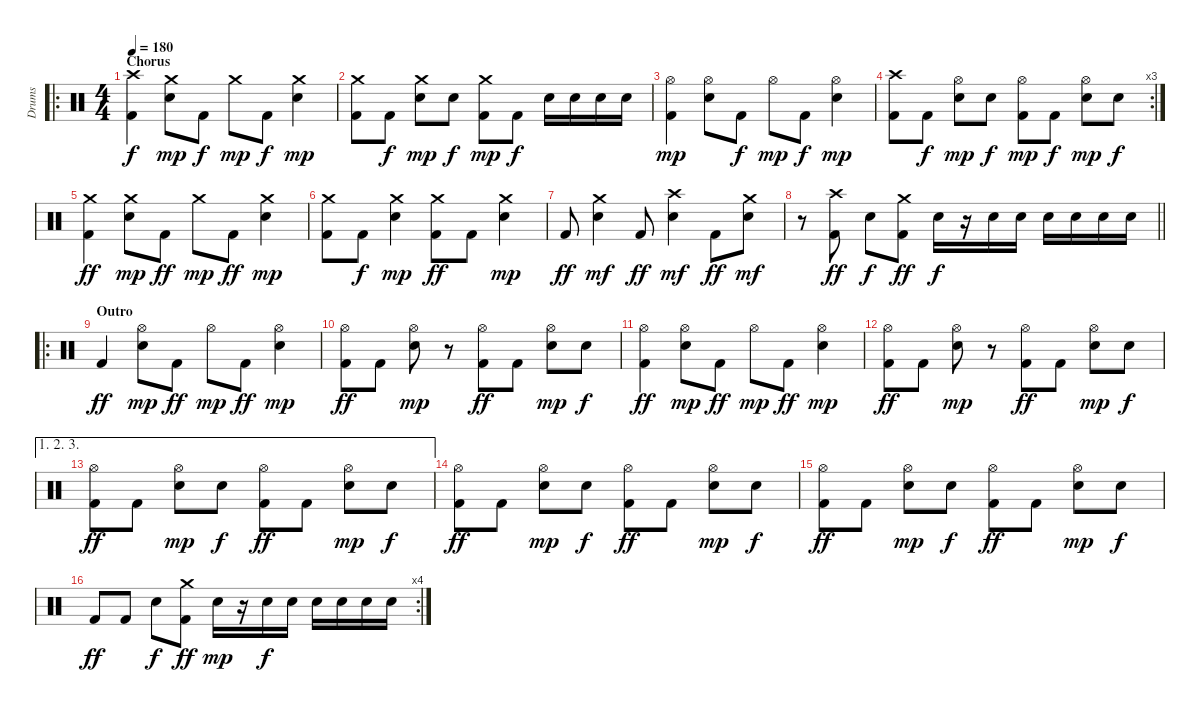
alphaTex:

\track ("Drums" "Drums") {instrument percussion}
\staff {score}
\articulation defaults
\ro
\ts (4 4)
\section ("" "Chorus")
\tempo 180
\clef neutral
\ks c
("Crash high (hit)" "Kick (hit) 2").4{dy f} ("Crash medium (hit)" "Snare (hit) 2").8{dy mp} "Kick (hit) 2".8{dy f} "Crash medium (hit)".8{dy mp} "Kick (hit) 2".8{dy f} ("Crash medium (hit)" "Snare (hit) 2").4{dy mp} |
("Crash medium (hit)" "Kick (hit) 2").8 "Kick (hit) 2".8{dy f} ("Crash medium (hit)" "Snare (hit) 2").8{dy mp} "Snare (hit) 2".8{dy f} ("Crash medium (hit)" "Kick (hit) 2").8{dy mp} "Kick (hit) 2".8{dy f} "Snare (hit) 2".16 "Snare (hit) 2".16 "Snare (hit) 2".16 "Snare (hit) 2".16 |
("Hi-Hat (open)" "Kick (hit) 2").4{dy mp} ("Hi-Hat (open)" "Snare (hit) 2").8 "Kick (hit) 2".8{dy f} "Hi-Hat (open)".8{dy mp} "Kick (hit) 2".8{dy f} ("Hi-Hat (open)" "Snare (hit) 2").4{dy mp} |
\rc 3
("Crash high (hit)" "Kick (hit) 2").8 "Kick (hit) 2".8{dy f} ("Hi-Hat (open)" "Snare (hit) 2").8{dy mp} "Snare (hit) 2".8{dy f} ("Hi-Hat (open)" "Kick (hit) 2").8{dy mp} "Kick (hit) 2".8{dy f} ("Hi-Hat (open)" "Snare (hit) 2").8{dy mp} "Snare (hit) 2".8{dy f} |
("Crash medium (hit)" "Kick (hit) 2").4{dy ff} ("Crash medium (hit)" "Snare (hit) 2").8{dy mp} "Kick (hit) 2".8{dy ff} "Crash medium (hit)".8{dy mp} "Kick (hit) 2".8{dy ff} ("Crash medium (hit)" "Snare (hit) 2").4{dy mp} |
("Crash medium (hit)" "Kick (hit) 2").8 "Kick (hit) 2".8{dy f} ("Crash medium (hit)" "Snare (hit) 2").4{dy mp} ("Crash medium (hit)" "Kick (hit) 2").8{dy ff} "Kick (hit) 2".8 ("Crash medium (hit)" "Snare (hit) 2").4{dy mp} |
"Kick (hit) 2".8{dy ff} ("Crash medium (hit)" "Snare (hit) 2").4{dy mf} "Kick (hit) 2".8{dy ff} ("Crash high (hit)" "Snare (hit) 2").4{dy mf} "Kick (hit) 2".8{dy ff} ("Crash medium (hit)" "Snare (hit) 2").8{dy mf} |
\barLineRight lightlight
r.8 ("Crash high (hit)" "Kick (hit) 2").8{dy ff} "Snare (hit) 2".8{dy f} ("Crash medium (hit)" "Kick (hit) 2").8{dy ff} "Snare (hit) 2".16{dy f} r.16 "Snare (hit) 2".16 "Snare (hit) 2".16 "Snare (hit) 2".16 "Snare (hit) 2".16 "Snare (hit) 2".16 "Snare (hit) 2".16 |
\ro
\section ("" "Outro")
"Kick (hit) 2".4{dy ff} ("Hi-Hat (open)" "Snare (hit) 2").8{dy mp} "Kick (hit) 2".8{dy ff} "Hi-Hat (open)".8{dy mp} "Kick (hit) 2".8{dy ff} ("Hi-Hat (open)" "Snare (hit) 2").4{dy mp} |
("Hi-Hat (open)" "Kick (hit) 2").8{dy ff} "Kick (hit) 2".8 ("Hi-Hat (open)" "Snare (hit) 2").8{dy mp} r.8 ("Hi-Hat (open)" "Kick (hit) 2").8{dy ff} "Kick (hit) 2".8 ("Hi-Hat (open)" "Snare (hit) 2").8{dy mp} "Snare (hit) 2".8{dy f} |
("Hi-Hat (open)" "Kick (hit) 2").4{dy ff} ("Hi-Hat (open)" "Snare (hit) 2").8{dy mp} "Kick (hit) 2".8{dy ff} "Hi-Hat (open)".8{dy mp} "Kick (hit) 2".8{dy ff} ("Hi-Hat (open)" "Snare (hit) 2").4{dy mp} |
("Hi-Hat (open)" "Kick (hit) 2").8{dy ff} "Kick (hit) 2".8 ("Hi-Hat (open)" "Snare (hit) 2").8{dy mp} r.8 ("Hi-Hat (open)" "Kick (hit) 2").8{dy ff} "Kick (hit) 2".8 ("Hi-Hat (open)" "Snare (hit) 2").8{dy mp} "Snare (hit) 2".8{dy f} |
\ae (1 2 3)
("Hi-Hat (open)" "Kick (hit) 2").8{dy ff} "Kick (hit) 2".8 ("Hi-Hat (open)" "Snare (hit) 2").8{dy mp} "Snare (hit) 2".8{dy f} ("Hi-Hat (open)" "Kick (hit) 2").8{dy ff} "Kick (hit) 2".8 ("Hi-Hat (open)" "Snare (hit) 2").8{dy mp} "Snare (hit) 2".8{dy f} |
("Hi-Hat (open)" "Kick (hit) 2").8{dy ff} "Kick (hit) 2".8 ("Hi-Hat (open)" "Snare (hit) 2").8{dy mp} "Snare (hit) 2".8{dy f} ("Hi-Hat (open)" "Kick (hit) 2").8{dy ff} "Kick (hit) 2".8 ("Hi-Hat (open)" "Snare (hit) 2").8{dy mp} "Snare (hit) 2".8{dy f} |
("Hi-Hat (open)" "Kick (hit) 2").8{dy ff} "Kick (hit) 2".8 ("Hi-Hat (open)" "Snare (hit) 2").8{dy mp} "Snare (hit) 2".8{dy f} ("Hi-Hat (open)" "Kick (hit) 2").8{dy ff} "Kick (hit) 2".8 ("Hi-Hat (open)" "Snare (hit) 2").8{dy mp} "Snare (hit) 2".8{dy f} |
\rc 4 "Kick (hit) 2".8{dy ff} "Kick (hit) 2".8 "Snare (hit) 2".8{dy f}
("Crash medium (hit)" "Kick (hit) 2").8{dy ff} "Snare (hit) 2".16{dy mp} r.16 "Snare (hit) 2".16{dy f} "Snare (hit) 2".16 "Snare (hit) 2".16 "Snare (hit) 2".16 "Snare (hit) 2".16 "Snare (hit) 2".16
